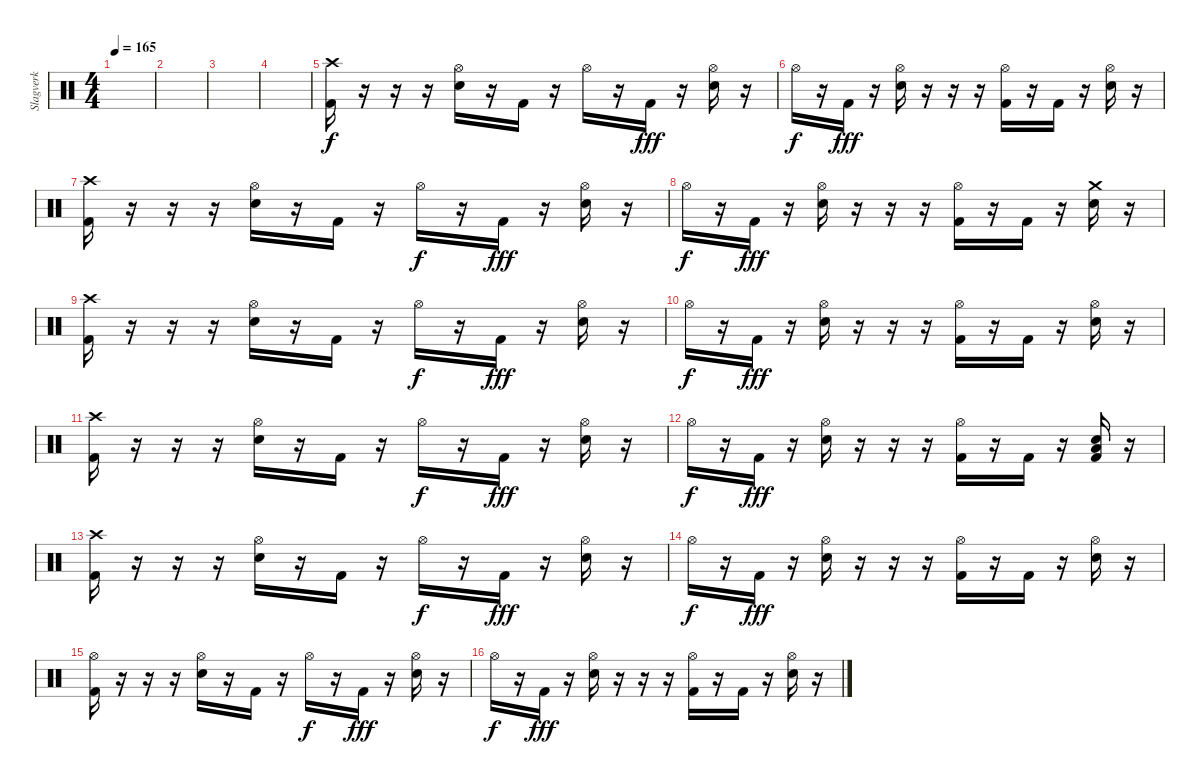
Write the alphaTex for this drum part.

\track ("Slagverk" "Slagverk") {instrument percussion}
\staff {score}
\articulation defaults
\ts (4 4)
\tempo 165
\clef neutral
\ks c
|
|
|
|
("Crash high (hit)" "Kick (hit) 2").16 r.16 r.16 r.16 ("Hi-Hat (open)" "Electric Snare (hit)").16 r.16 "Kick (hit) 2".16 r.16 "Hi-Hat (open)".16{dy f} r.16 "Kick (hit) 2".16{dy fff} r.16 ("Hi-Hat (open)" "Electric Snare (hit)").16 r.16 |
"Hi-Hat (open)".16{dy f} r.16 "Kick (hit) 2".16{dy fff} r.16 ("Hi-Hat (open)" "Electric Snare (hit)").16 r.16 r.16 r.16 ("Hi-Hat (open)" "Kick (hit) 2").16 r.16 "Kick (hit) 2".16 r.16 ("Hi-Hat (open)" "Electric Snare (hit)").16 r.16 |
("Crash high (hit)" "Kick (hit) 2").16 r.16 r.16 r.16 ("Hi-Hat (open)" "Electric Snare (hit)").16 r.16 "Kick (hit) 2".16 r.16 "Hi-Hat (open)".16{dy f} r.16 "Kick (hit) 2".16{dy fff} r.16 ("Hi-Hat (open)" "Electric Snare (hit)").16 r.16 |
"Hi-Hat (open)".16{dy f} r.16 "Kick (hit) 2".16{dy fff} r.16 ("Hi-Hat (open)" "Electric Snare (hit)").16 r.16 r.16 r.16 ("Hi-Hat (open)" "Kick (hit) 2").16 r.16 "Kick (hit) 2".16 r.16 ("Crash medium (hit)" "Electric Snare (hit)").16 r.16 |
("Crash high (hit)" "Kick (hit) 2").16 r.16 r.16 r.16 ("Hi-Hat (open)" "Electric Snare (hit)").16 r.16 "Kick (hit) 2".16 r.16 "Hi-Hat (open)".16{dy f} r.16 "Kick (hit) 2".16{dy fff} r.16 ("Hi-Hat (open)" "Electric Snare (hit)").16 r.16 |
"Hi-Hat (open)".16{dy f} r.16 "Kick (hit) 2".16{dy fff} r.16 ("Hi-Hat (open)" "Electric Snare (hit)").16 r.16 r.16 r.16 ("Hi-Hat (open)" "Kick (hit) 2").16 r.16 "Kick (hit) 2".16 r.16 ("Hi-Hat (open)" "Electric Snare (hit)").16 r.16 |
("Crash high (hit)" "Kick (hit) 2").16 r.16 r.16 r.16 ("Hi-Hat (open)" "Electric Snare (hit)").16 r.16 "Kick (hit) 2".16 r.16 "Hi-Hat (open)".16{dy f} r.16 "Kick (hit) 2".16{dy fff} r.16 ("Hi-Hat (open)" "Electric Snare (hit)").16 r.16 |
"Hi-Hat (open)".16{dy f} r.16 "Kick (hit) 2".16{dy fff} r.16 ("Hi-Hat (open)" "Electric Snare (hit)").16 r.16 r.16 r.16 ("Hi-Hat (open)" "Kick (hit) 2").16 r.16 "Kick (hit) 2".16 r.16 ("Low Floor Tom (hit)" "Electric Snare (hit)" "Kick (hit) 2").16 r.16 |
("Crash high (hit)" "Kick (hit) 2").16 r.16 r.16 r.16 ("Hi-Hat (open)" "Electric Snare (hit)").16 r.16 "Kick (hit) 2".16 r.16 "Hi-Hat (open)".16{dy f} r.16 "Kick (hit) 2".16{dy fff} r.16 ("Hi-Hat (open)" "Electric Snare (hit)").16 r.16 |
"Hi-Hat (open)".16{dy f} r.16 "Kick (hit) 2".16{dy fff} r.16 ("Hi-Hat (open)" "Electric Snare (hit)").16 r.16 r.16 r.16 ("Hi-Hat (open)" "Kick (hit) 2").16 r.16 "Kick (hit) 2".16 r.16 ("Hi-Hat (open)" "Electric Snare (hit)").16 r.16 |
("Hi-Hat (open)" "Kick (hit) 2").16 r.16 r.16 r.16 ("Hi-Hat (open)" "Electric Snare (hit)").16 r.16 "Kick (hit) 2".16 r.16 "Hi-Hat (open)".16{dy f} r.16 "Kick (hit) 2".16{dy fff} r.16 ("Hi-Hat (open)" "Electric Snare (hit)").16 r.16 |
"Hi-Hat (open)".16{dy f} r.16 "Kick (hit) 2".16{dy fff} r.16 ("Hi-Hat (open)" "Electric Snare (hit)").16 r.16 r.16 r.16 ("Hi-Hat (open)" "Kick (hit) 2").16 r.16 "Kick (hit) 2".16 r.16 ("Hi-Hat (open)" "Electric Snare (hit)").16 r.16
